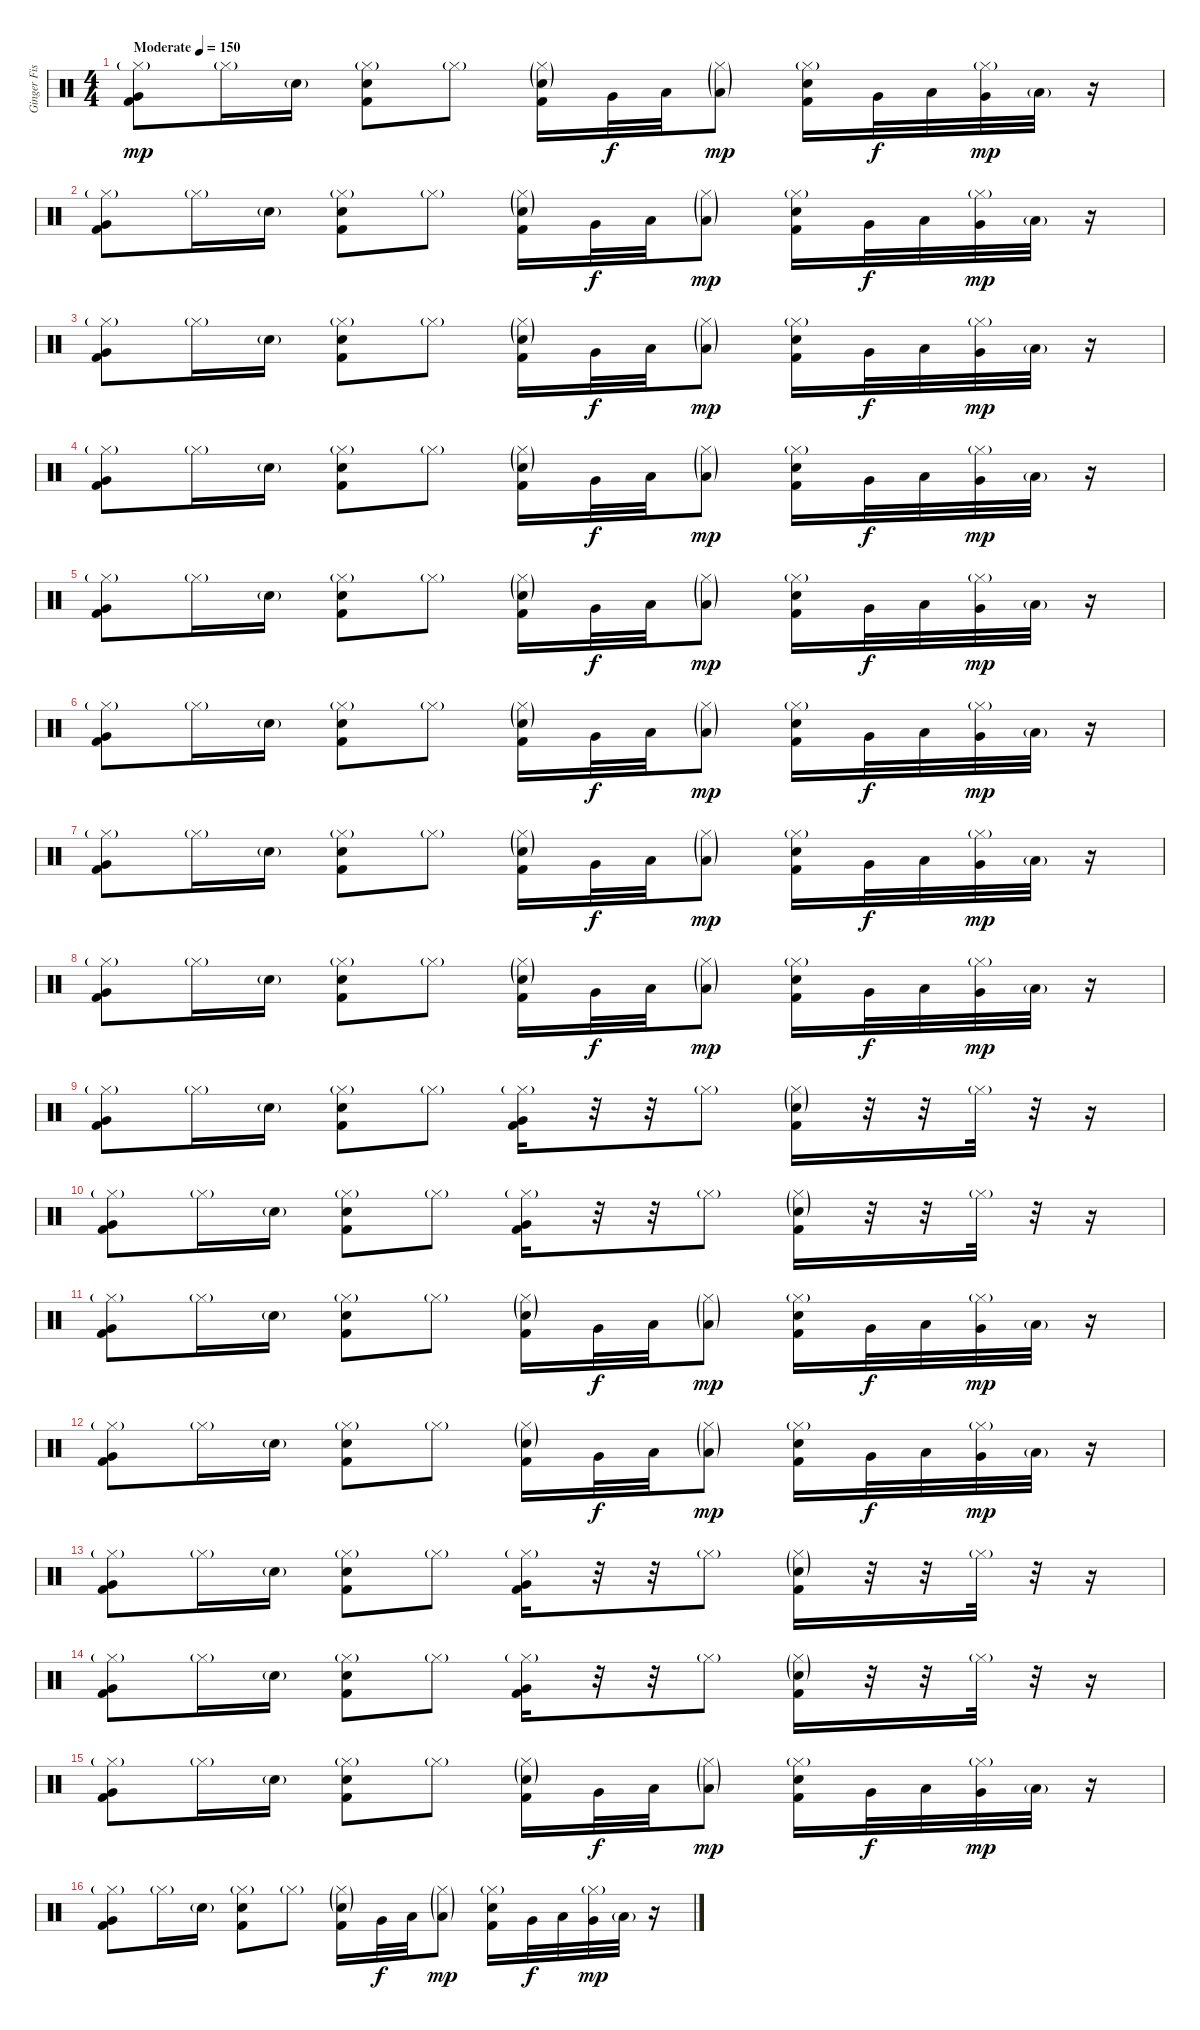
\track ("Ginger Fish" "Ginger Fis") {instrument percussion}
\staff {score}
\articulation defaults
\ts (4 4)
\tempo (150 "Moderate")
\clef neutral
\ks c
("Hi-Hat (closed)"{g} "Very Low Tom (hit)" "Kick (hit) 2").8{dy mp} "Hi-Hat (closed)"{g}.16 "Electric Snare (hit)"{g}.16 ("Hi-Hat (closed)"{g} "Electric Snare (hit)" "Kick (hit) 2").8 "Hi-Hat (closed)"{g}.8 ("Hi-Hat (closed)"{g} "Snare (hit) 2"{g} "Kick (hit) 2").16 "Very Low Tom (hit)".32{dy f} "Low Floor Tom (hit)".32 ("Hi-Hat (closed)"{g} "Low Floor Tom (hit)"{g}).8{dy mp} ("Hi-Hat (closed)"{g} "Snare (hit) 2" "Kick (hit) 2").16 "Very Low Tom (hit)".32{dy f} "Low Floor Tom (hit)".32 ("Hi-Hat (closed)"{g} "Very Low Tom (hit)").32{dy mp} "Low Floor Tom (hit)"{g}.32 r.16 |
("Hi-Hat (closed)"{g} "Very Low Tom (hit)" "Kick (hit) 2").8 "Hi-Hat (closed)"{g}.16 "Electric Snare (hit)"{g}.16 ("Hi-Hat (closed)"{g} "Electric Snare (hit)" "Kick (hit) 2").8 "Hi-Hat (closed)"{g}.8 ("Hi-Hat (closed)"{g} "Snare (hit) 2"{g} "Kick (hit) 2").16 "Very Low Tom (hit)".32{dy f} "Low Floor Tom (hit)".32 ("Hi-Hat (closed)"{g} "Low Floor Tom (hit)"{g}).8{dy mp} ("Hi-Hat (closed)"{g} "Snare (hit) 2" "Kick (hit) 2").16 "Very Low Tom (hit)".32{dy f} "Low Floor Tom (hit)".32 ("Hi-Hat (closed)"{g} "Very Low Tom (hit)").32{dy mp} "Low Floor Tom (hit)"{g}.32 r.16 |
("Hi-Hat (closed)"{g} "Very Low Tom (hit)" "Kick (hit) 2").8 "Hi-Hat (closed)"{g}.16 "Electric Snare (hit)"{g}.16 ("Hi-Hat (closed)"{g} "Electric Snare (hit)" "Kick (hit) 2").8 "Hi-Hat (closed)"{g}.8 ("Hi-Hat (closed)"{g} "Snare (hit) 2"{g} "Kick (hit) 2").16 "Very Low Tom (hit)".32{dy f} "Low Floor Tom (hit)".32 ("Hi-Hat (closed)"{g} "Low Floor Tom (hit)"{g}).8{dy mp} ("Hi-Hat (closed)"{g} "Snare (hit) 2" "Kick (hit) 2").16 "Very Low Tom (hit)".32{dy f} "Low Floor Tom (hit)".32 ("Hi-Hat (closed)"{g} "Very Low Tom (hit)").32{dy mp} "Low Floor Tom (hit)"{g}.32 r.16 |
("Hi-Hat (closed)"{g} "Very Low Tom (hit)" "Kick (hit) 2").8 "Hi-Hat (closed)"{g}.16 "Electric Snare (hit)"{g}.16 ("Hi-Hat (closed)"{g} "Electric Snare (hit)" "Kick (hit) 2").8 "Hi-Hat (closed)"{g}.8 ("Hi-Hat (closed)"{g} "Snare (hit) 2"{g} "Kick (hit) 2").16 "Very Low Tom (hit)".32{dy f} "Low Floor Tom (hit)".32 ("Hi-Hat (closed)"{g} "Low Floor Tom (hit)"{g}).8{dy mp} ("Hi-Hat (closed)"{g} "Snare (hit) 2" "Kick (hit) 2").16 "Very Low Tom (hit)".32{dy f} "Low Floor Tom (hit)".32 ("Hi-Hat (closed)"{g} "Very Low Tom (hit)").32{dy mp} "Low Floor Tom (hit)"{g}.32 r.16 |
("Hi-Hat (closed)"{g} "Very Low Tom (hit)" "Kick (hit) 2").8 "Hi-Hat (closed)"{g}.16 "Electric Snare (hit)"{g}.16 ("Hi-Hat (closed)"{g} "Electric Snare (hit)" "Kick (hit) 2").8 "Hi-Hat (closed)"{g}.8 ("Hi-Hat (closed)"{g} "Snare (hit) 2"{g} "Kick (hit) 2").16 "Very Low Tom (hit)".32{dy f} "Low Floor Tom (hit)".32 ("Hi-Hat (closed)"{g} "Low Floor Tom (hit)"{g}).8{dy mp} ("Hi-Hat (closed)"{g} "Snare (hit) 2" "Kick (hit) 2").16 "Very Low Tom (hit)".32{dy f} "Low Floor Tom (hit)".32 ("Hi-Hat (closed)"{g} "Very Low Tom (hit)").32{dy mp} "Low Floor Tom (hit)"{g}.32 r.16 |
("Hi-Hat (closed)"{g} "Very Low Tom (hit)" "Kick (hit) 2").8 "Hi-Hat (closed)"{g}.16 "Electric Snare (hit)"{g}.16 ("Hi-Hat (closed)"{g} "Electric Snare (hit)" "Kick (hit) 2").8 "Hi-Hat (closed)"{g}.8 ("Hi-Hat (closed)"{g} "Snare (hit) 2"{g} "Kick (hit) 2").16 "Very Low Tom (hit)".32{dy f} "Low Floor Tom (hit)".32 ("Hi-Hat (closed)"{g} "Low Floor Tom (hit)"{g}).8{dy mp} ("Hi-Hat (closed)"{g} "Snare (hit) 2" "Kick (hit) 2").16 "Very Low Tom (hit)".32{dy f} "Low Floor Tom (hit)".32 ("Hi-Hat (closed)"{g} "Very Low Tom (hit)").32{dy mp} "Low Floor Tom (hit)"{g}.32 r.16 |
("Hi-Hat (closed)"{g} "Very Low Tom (hit)" "Kick (hit) 2").8 "Hi-Hat (closed)"{g}.16 "Electric Snare (hit)"{g}.16 ("Hi-Hat (closed)"{g} "Electric Snare (hit)" "Kick (hit) 2").8 "Hi-Hat (closed)"{g}.8 ("Hi-Hat (closed)"{g} "Snare (hit) 2"{g} "Kick (hit) 2").16 "Very Low Tom (hit)".32{dy f} "Low Floor Tom (hit)".32 ("Hi-Hat (closed)"{g} "Low Floor Tom (hit)"{g}).8{dy mp} ("Hi-Hat (closed)"{g} "Snare (hit) 2" "Kick (hit) 2").16 "Very Low Tom (hit)".32{dy f} "Low Floor Tom (hit)".32 ("Hi-Hat (closed)"{g} "Very Low Tom (hit)").32{dy mp} "Low Floor Tom (hit)"{g}.32 r.16 |
("Hi-Hat (closed)"{g} "Very Low Tom (hit)" "Kick (hit) 2").8 "Hi-Hat (closed)"{g}.16 "Electric Snare (hit)"{g}.16 ("Hi-Hat (closed)"{g} "Electric Snare (hit)" "Kick (hit) 2").8 "Hi-Hat (closed)"{g}.8 ("Hi-Hat (closed)"{g} "Snare (hit) 2"{g} "Kick (hit) 2").16 "Very Low Tom (hit)".32{dy f} "Low Floor Tom (hit)".32 ("Hi-Hat (closed)"{g} "Low Floor Tom (hit)"{g}).8{dy mp} ("Hi-Hat (closed)"{g} "Snare (hit) 2" "Kick (hit) 2").16 "Very Low Tom (hit)".32{dy f} "Low Floor Tom (hit)".32 ("Hi-Hat (closed)"{g} "Very Low Tom (hit)").32{dy mp} "Low Floor Tom (hit)"{g}.32 r.16 |
("Hi-Hat (closed)"{g} "Very Low Tom (hit)" "Kick (hit) 2").8 "Hi-Hat (closed)"{g}.16 "Electric Snare (hit)"{g}.16 ("Hi-Hat (closed)"{g} "Electric Snare (hit)" "Kick (hit) 2").8 "Hi-Hat (closed)"{g}.8 ("Hi-Hat (closed)"{g} "Very Low Tom (hit)" "Kick (hit) 2").16 r.32 r.32 "Hi-Hat (closed)"{g}.8 ("Hi-Hat (closed)"{g} "Electric Snare (hit)"{g} "Kick (hit) 2").16 r.32 r.32 "Hi-Hat (closed)"{g}.32 r.32 r.16 |
("Hi-Hat (closed)"{g} "Very Low Tom (hit)" "Kick (hit) 2").8 "Hi-Hat (closed)"{g}.16 "Electric Snare (hit)"{g}.16 ("Hi-Hat (closed)"{g} "Electric Snare (hit)" "Kick (hit) 2").8 "Hi-Hat (closed)"{g}.8 ("Hi-Hat (closed)"{g} "Very Low Tom (hit)" "Kick (hit) 2").16 r.32 r.32 "Hi-Hat (closed)"{g}.8 ("Hi-Hat (closed)"{g} "Electric Snare (hit)"{g} "Kick (hit) 2").16 r.32 r.32 "Hi-Hat (closed)"{g}.32 r.32 r.16 |
("Hi-Hat (closed)"{g} "Very Low Tom (hit)" "Kick (hit) 2").8 "Hi-Hat (closed)"{g}.16 "Electric Snare (hit)"{g}.16 ("Hi-Hat (closed)"{g} "Electric Snare (hit)" "Kick (hit) 2").8 "Hi-Hat (closed)"{g}.8 ("Hi-Hat (closed)"{g} "Snare (hit) 2"{g} "Kick (hit) 2").16 "Very Low Tom (hit)".32{dy f} "Low Floor Tom (hit)".32 ("Hi-Hat (closed)"{g} "Low Floor Tom (hit)"{g}).8{dy mp} ("Hi-Hat (closed)"{g} "Snare (hit) 2" "Kick (hit) 2").16 "Very Low Tom (hit)".32{dy f} "Low Floor Tom (hit)".32 ("Hi-Hat (closed)"{g} "Very Low Tom (hit)").32{dy mp} "Low Floor Tom (hit)"{g}.32 r.16 |
("Hi-Hat (closed)"{g} "Very Low Tom (hit)" "Kick (hit) 2").8 "Hi-Hat (closed)"{g}.16 "Electric Snare (hit)"{g}.16 ("Hi-Hat (closed)"{g} "Electric Snare (hit)" "Kick (hit) 2").8 "Hi-Hat (closed)"{g}.8 ("Hi-Hat (closed)"{g} "Snare (hit) 2"{g} "Kick (hit) 2").16 "Very Low Tom (hit)".32{dy f} "Low Floor Tom (hit)".32 ("Hi-Hat (closed)"{g} "Low Floor Tom (hit)"{g}).8{dy mp} ("Hi-Hat (closed)"{g} "Snare (hit) 2" "Kick (hit) 2").16 "Very Low Tom (hit)".32{dy f} "Low Floor Tom (hit)".32 ("Hi-Hat (closed)"{g} "Very Low Tom (hit)").32{dy mp} "Low Floor Tom (hit)"{g}.32 r.16 |
("Hi-Hat (closed)"{g} "Very Low Tom (hit)" "Kick (hit) 2").8 "Hi-Hat (closed)"{g}.16 "Electric Snare (hit)"{g}.16 ("Hi-Hat (closed)"{g} "Electric Snare (hit)" "Kick (hit) 2").8 "Hi-Hat (closed)"{g}.8 ("Hi-Hat (closed)"{g} "Very Low Tom (hit)" "Kick (hit) 2").16 r.32 r.32 "Hi-Hat (closed)"{g}.8 ("Hi-Hat (closed)"{g} "Electric Snare (hit)"{g} "Kick (hit) 2").16 r.32 r.32 "Hi-Hat (closed)"{g}.32 r.32 r.16 |
("Hi-Hat (closed)"{g} "Very Low Tom (hit)" "Kick (hit) 2").8 "Hi-Hat (closed)"{g}.16 "Electric Snare (hit)"{g}.16 ("Hi-Hat (closed)"{g} "Electric Snare (hit)" "Kick (hit) 2").8 "Hi-Hat (closed)"{g}.8 ("Hi-Hat (closed)"{g} "Very Low Tom (hit)" "Kick (hit) 2").16 r.32 r.32 "Hi-Hat (closed)"{g}.8 ("Hi-Hat (closed)"{g} "Electric Snare (hit)"{g} "Kick (hit) 2").16 r.32 r.32 "Hi-Hat (closed)"{g}.32 r.32 r.16 |
("Hi-Hat (closed)"{g} "Very Low Tom (hit)" "Kick (hit) 2").8 "Hi-Hat (closed)"{g}.16 "Electric Snare (hit)"{g}.16 ("Hi-Hat (closed)"{g} "Electric Snare (hit)" "Kick (hit) 2").8 "Hi-Hat (closed)"{g}.8 ("Hi-Hat (closed)"{g} "Snare (hit) 2"{g} "Kick (hit) 2").16 "Very Low Tom (hit)".32{dy f} "Low Floor Tom (hit)".32 ("Hi-Hat (closed)"{g} "Low Floor Tom (hit)"{g}).8{dy mp} ("Hi-Hat (closed)"{g} "Snare (hit) 2" "Kick (hit) 2").16 "Very Low Tom (hit)".32{dy f} "Low Floor Tom (hit)".32 ("Hi-Hat (closed)"{g} "Very Low Tom (hit)").32{dy mp} "Low Floor Tom (hit)"{g}.32 r.16 |
("Hi-Hat (closed)"{g} "Very Low Tom (hit)" "Kick (hit) 2").8 "Hi-Hat (closed)"{g}.16 "Electric Snare (hit)"{g}.16 ("Hi-Hat (closed)"{g} "Electric Snare (hit)" "Kick (hit) 2").8 "Hi-Hat (closed)"{g}.8 ("Hi-Hat (closed)"{g} "Snare (hit) 2"{g} "Kick (hit) 2").16 "Very Low Tom (hit)".32{dy f} "Low Floor Tom (hit)".32 ("Hi-Hat (closed)"{g} "Low Floor Tom (hit)"{g}).8{dy mp} ("Hi-Hat (closed)"{g} "Snare (hit) 2" "Kick (hit) 2").16 "Very Low Tom (hit)".32{dy f} "Low Floor Tom (hit)".32 ("Hi-Hat (closed)"{g} "Very Low Tom (hit)").32{dy mp} "Low Floor Tom (hit)"{g}.32 r.16
